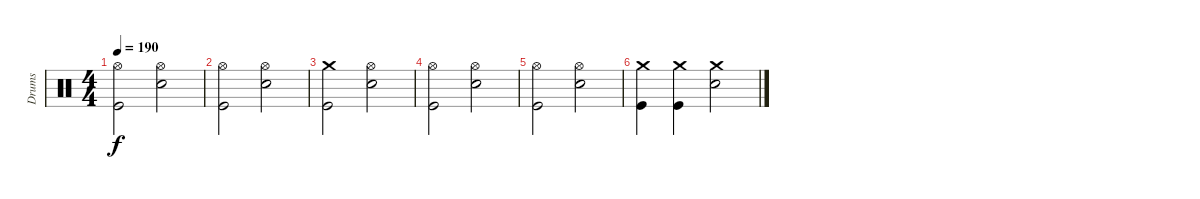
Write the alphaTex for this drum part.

\track ("Drums" "Drums") {instrument percussion}
\staff {score}
\articulation defaults
\ts (4 4)
\tempo 190
\clef neutral
\ks c
("Hi-Hat (open)" "Kick (hit)").2{dy f} ("Hi-Hat (open)" "Snare (hit) 2").2 |
("Hi-Hat (open)" "Kick (hit)").2 ("Hi-Hat (open)" "Snare (hit) 2").2 |
("Crash medium (hit)" "Kick (hit)").2 ("Hi-Hat (open)" "Snare (hit) 2").2 |
("Hi-Hat (open)" "Kick (hit)").2 ("Hi-Hat (open)" "Snare (hit) 2").2 |
("Hi-Hat (open)" "Kick (hit)").2 ("Hi-Hat (open)" "Snare (hit) 2").2 |
("Crash medium (hit)" "Kick (hit)").4 ("Crash medium (hit)" "Kick (hit)").4 ("Crash medium (hit)" "Snare (hit) 2").2
